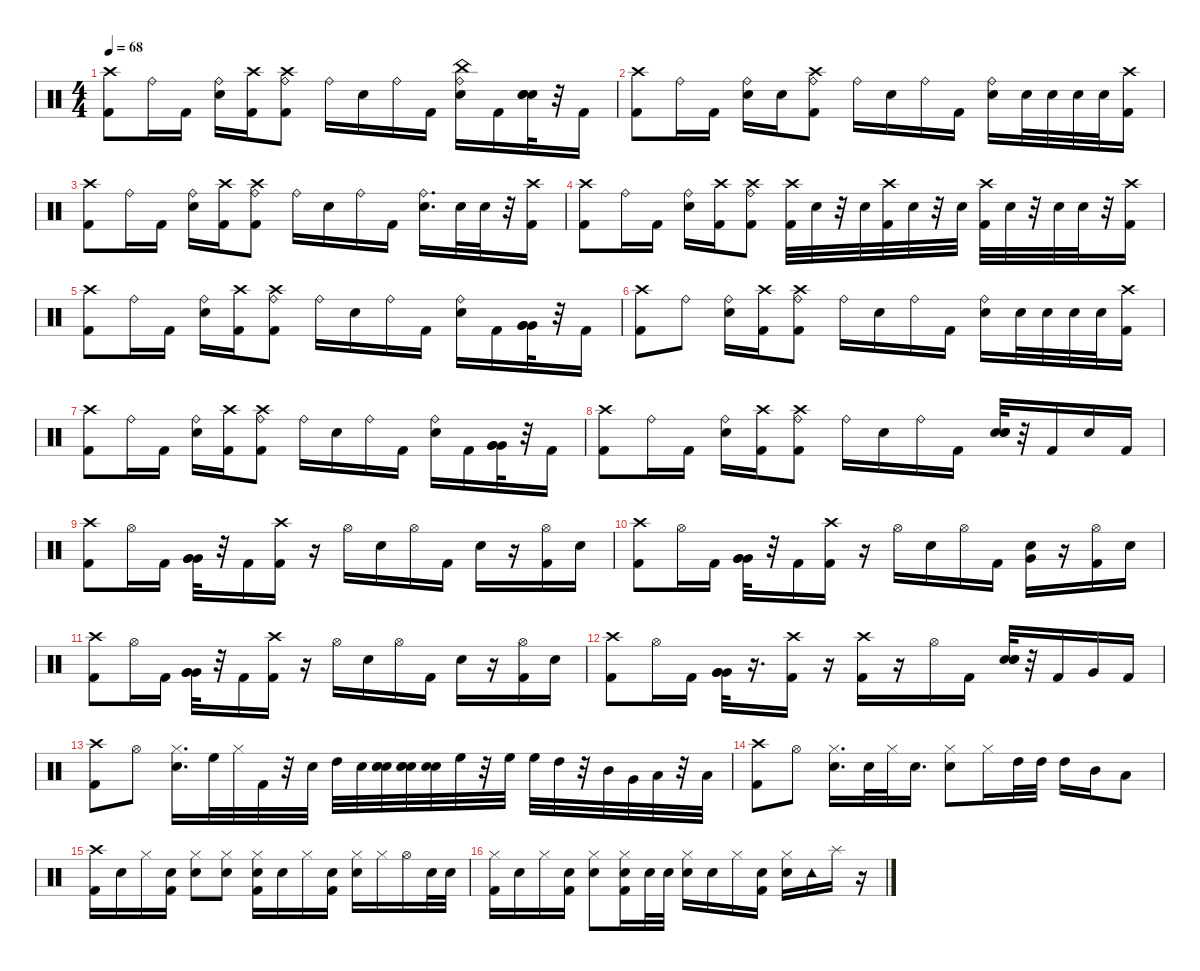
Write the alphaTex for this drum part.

\defaultSystemsLayout 4
\hideDynamics
\bracketExtendMode nobrackets
\singleTrackTrackNamePolicy hidden
\multiTrackTrackNamePolicy hidden
\firstSystemTrackNameMode fullname
\otherSystemsTrackNameOrientation horizontal
\track ("Drums" "drm.") {instrument percussion}
\staff {score}
\articulation defaults
\ts (4 4)
\tempo 68
\clef neutral
\ks c
("Crash high (hit)" "Kick (hit) 2").8{dy f beam Down} "Ride (bell)".16{beam Down} "Kick (hit) 2".16{beam Down} ("Ride (bell)" "Snare (hit) 2").16{beam Down} ("Kick (hit) 2" "Crash high (hit)").16{beam Down} ("Ride (bell)" "Crash high (hit)" "Kick (hit) 2").8{beam Down} "Ride (bell)".16{beam Down} "Snare (hit) 2".16{beam Down} "Ride (bell)".16{beam Down} "Kick (hit) 2".16{beam Down} ("Snare (hit) 2" "Ride (bell)" "China (hit)").16{beam Down} "Kick (hit) 2".16{beam Down} ("Snare (hit) 2" "Snare (hit) 2" "Snare (hit) 2").32{beam Down} r.32{beam Down} "Kick (hit) 2".16{beam Down} |
("Kick (hit) 2" "Crash high (hit)").8{beam Down} "Ride (bell)".16{beam Down} "Kick (hit) 2".16{beam Down} ("Ride (bell)" "Snare (hit) 2").16{beam Down} "Snare (hit) 2".16{beam Down} ("Ride (bell)" "Crash high (hit)" "Kick (hit) 2").8{beam Down} "Ride (bell)".16{beam Down} "Snare (hit) 2".16{beam Down} "Ride (bell)".16{beam Down} "Kick (hit) 2".16{beam Down} ("Ride (bell)" "Snare (hit) 2").16{beam Down} "Snare (hit) 2".32{beam Down} "Snare (hit) 2".32{beam Down} "Snare (hit) 2".32{beam Down} "Snare (hit) 2".32{beam Down} ("Crash high (hit)" "Kick (hit) 2").16{beam Down} |
("Kick (hit) 2" "Crash high (hit)").8{beam Down} "Ride (bell)".16{beam Down} "Kick (hit) 2".16{beam Down} ("Ride (bell)" "Snare (hit) 2").16{beam Down} ("Crash high (hit)" "Kick (hit) 2").16{beam Down} ("Ride (bell)" "Crash high (hit)" "Kick (hit) 2").8{beam Down} "Ride (bell)".16{beam Down} "Snare (hit) 2".16{beam Down} "Ride (bell)".16{beam Down} "Kick (hit) 2".16{beam Down} ("Snare (hit) 2" "Ride (bell)").16{d beam Down} "Snare (hit) 2".32{beam Down} "Snare (hit) 2".32{beam Down} r.32{beam Down} ("Kick (hit) 2" "Crash high (hit)").16{beam Down} |
("Crash high (hit)" "Kick (hit) 2").8{beam Down} "Ride (bell)".16{beam Down} "Kick (hit) 2".16{beam Down} ("Ride (bell)" "Snare (hit) 2").16{beam Down} ("Crash high (hit)" "Kick (hit) 2").16{beam Down} ("Ride (bell)" "Crash high (hit)" "Kick (hit) 2").8{beam Down} ("Kick (hit) 2" "Crash high (hit)").32{beam Down} "Snare (hit) 2".32{beam Down} r.32{beam Down} "Snare (hit) 2".32{beam Down} ("Kick (hit) 2" "Crash high (hit)").32{beam Down} "Snare (hit) 2".32{beam Down} r.32{beam Down} "Snare (hit) 2".32{beam Down} ("Kick (hit) 2" "Crash high (hit)").32{beam Down} "Snare (hit) 2".32{beam Down} r.32{beam Down} "Snare (hit) 2".32{beam Down} "Snare (hit) 2".32{beam Down} r.32{beam Down} ("Crash high (hit)" "Kick (hit) 2").16{beam Down} |
("Kick (hit) 2" "Crash high (hit)").8{beam Down} "Ride (bell)".16{beam Down} "Kick (hit) 2".16{beam Down} ("Ride (bell)" "Snare (hit) 2").16{beam Down} ("Kick (hit) 2" "Crash high (hit)").16{beam Down} ("Ride (bell)" "Crash high (hit)" "Kick (hit) 2").8{beam Down} "Ride (bell)".16{beam Down} "Snare (hit) 2".16{beam Down} "Ride (bell)".16{beam Down} "Kick (hit) 2".16{beam Down} ("Snare (hit) 2" "Ride (bell)").16{beam Down} "Kick (hit) 2".16{beam Down} ("Very Low Tom (hit)" "Very Low Tom (hit)" "Very Low Tom (hit)").32{beam Down} r.32{beam Down} "Kick (hit) 2".16{beam Down} |
("Kick (hit) 2" "Crash high (hit)").8{beam Down} "Ride (bell)".8{beam Down} ("Ride (bell)" "Snare (hit) 2").16{beam Down} ("Kick (hit) 2" "Crash high (hit)").16{beam Down} ("Ride (bell)" "Crash high (hit)" "Kick (hit) 2").8{beam Down} "Ride (bell)".16{beam Down} "Snare (hit) 2".16{beam Down} "Ride (bell)".16{beam Down} "Kick (hit) 2".16{beam Down} ("Ride (bell)" "Snare (hit) 2").16{beam Down} "Snare (hit) 2".32{beam Down} "Snare (hit) 2".32{beam Down} "Snare (hit) 2".32{beam Down} "Snare (hit) 2".32{beam Down} ("Crash high (hit)" "Kick (hit) 2").16{beam Down} |
("Crash high (hit)" "Kick (hit) 2").8{beam Down} "Ride (bell)".16{beam Down} "Kick (hit) 2".16{beam Down} ("Ride (bell)" "Snare (hit) 2").16{beam Down} ("Kick (hit) 2" "Crash high (hit)").16{beam Down} ("Ride (bell)" "Crash high (hit)" "Kick (hit) 2").8{beam Down} "Ride (bell)".16{beam Down} "Snare (hit) 2".16{beam Down} "Ride (bell)".16{beam Down} "Kick (hit) 2".16{beam Down} ("Snare (hit) 2" "Ride (bell)").16{beam Down} "Kick (hit) 2".16{beam Down} ("Very Low Tom (hit)" "Very Low Tom (hit)" "Very Low Tom (hit)").32{beam Down} r.32{beam Down} "Kick (hit) 2".16{beam Down} |
("Kick (hit) 2" "Crash high (hit)").8{beam Down} "Ride (bell)".16{beam Down} "Kick (hit) 2".16{beam Down} ("Ride (bell)" "Snare (hit) 2").16{beam Down} ("Kick (hit) 2" "Crash high (hit)").16{beam Down} ("Ride (bell)" "Crash high (hit)" "Kick (hit) 2").8{beam Down} "Ride (bell)".16{beam Down} "Snare (hit) 2".16{beam Down} "Ride (bell)".16{beam Down} "Kick (hit) 2".16{beam Down} ("Snare (hit) 2" "Snare (hit) 2" "Snare (hit) 2").32{beam Up} r.32{beam Up} "Kick (hit) 2".16{beam Up} "Snare (hit) 2".16{beam Up} "Kick (hit) 2".16{beam Up} |
("Crash high (hit)" "Kick (hit) 2").8{beam Down} "Hi-Hat (open)".16{beam Down} "Kick (hit) 2".16{beam Down} ("Very Low Tom (hit)" "Very Low Tom (hit)" "Very Low Tom (hit)").32{beam Down} r.32{beam Down} "Kick (hit) 2".16{beam Down} ("Crash high (hit)" "Kick (hit) 2").16{beam Down} r.16{beam Down} "Hi-Hat (open)".16{beam Down} "Snare (hit) 2".16{beam Down} "Hi-Hat (open)".16{beam Down} "Kick (hit) 2".16{beam Down} "Snare (hit) 2".16{beam Down} r.16{beam Down} ("Kick (hit) 2" "Hi-Hat (open)").16{beam Down} "Snare (hit) 2".16{beam Down} |
("Kick (hit) 2" "Crash high (hit)").8{beam Down} "Hi-Hat (open)".16{beam Down} "Kick (hit) 2".16{beam Down} ("Very Low Tom (hit)" "Very Low Tom (hit)" "Very Low Tom (hit)").32{beam Down} r.32{beam Down} "Kick (hit) 2".16{beam Down} ("Crash high (hit)" "Kick (hit) 2").16{beam Down} r.16{beam Down} "Hi-Hat (open)".16{beam Down} "Snare (hit) 2".16{beam Down} "Hi-Hat (open)".16{beam Down} "Kick (hit) 2".16{beam Down} ("Snare (hit) 2" "Very Low Tom (hit)").16{beam Down} r.16{beam Down} ("Kick (hit) 2" "Hi-Hat (open)").16{beam Down} "Snare (hit) 2".16{beam Down} |
("Kick (hit) 2" "Crash high (hit)").8{beam Down} "Hi-Hat (open)".16{beam Down} "Kick (hit) 2".16{beam Down} ("Very Low Tom (hit)" "Very Low Tom (hit)" "Very Low Tom (hit)").32{beam Down} r.32{beam Down} "Kick (hit) 2".16{beam Down} ("Crash high (hit)" "Kick (hit) 2").16{beam Down} r.16{beam Down} "Hi-Hat (open)".16{beam Down} "Snare (hit) 2".16{beam Down} "Hi-Hat (open)".16{beam Down} "Kick (hit) 2".16{beam Down} "Snare (hit) 2".16{beam Down} r.16{beam Down} ("Kick (hit) 2" "Hi-Hat (open)").16{beam Down} "Snare (hit) 2".16{beam Down} |
("Crash high (hit)" "Kick (hit) 2").8{beam Down} "Hi-Hat (open)".16{beam Down} "Kick (hit) 2".16{beam Down} ("Very Low Tom (hit)" "Very Low Tom (hit)" "Very Low Tom (hit)").32{beam Down} r.16{d beam Down} ("Crash high (hit)" "Kick (hit) 2").16{beam Down} r.16{beam Down} ("Crash high (hit)" "Kick (hit) 2").16{beam Down} r.16{beam Down} "Hi-Hat (open)".16{beam Down} "Kick (hit) 2".16{beam Down} ("Snare (hit) 2" "Snare (hit) 2" "Snare (hit) 2").32{beam Up} r.32{beam Up} "Kick (hit) 2".16{beam Up} "Very Low Tom (hit)".16{beam Up} "Kick (hit) 2".16{beam Up} |
("Crash high (hit)" "Kick (hit) 2").8{beam Down} "Hi-Hat (open)".8{beam Down} ("Snare (hit) 2" "Hi-Hat (closed)").16{d beam Down} "High Floor Tom (hit)".32{beam Down} "Hi-Hat (closed)".32{beam Down} "Kick (hit) 2".32{beam Down} r.32{beam Down} "Snare (hit) 2".32{beam Down} "High Tom (hit)".32{beam Down} "Snare (hit) 2".32{dy p beam Down} ("Snare (hit) 2" "Snare (hit) 2" "Snare (hit) 2").32{beam Down} ("Snare (hit) 2" "Snare (hit) 2" "Snare (hit) 2").32{beam Down} ("Snare (hit) 2" "Snare (hit) 2").32{beam Down} "High Floor Tom (hit)".32{dy f beam Down} r.32{beam Down} "High Floor Tom (hit)".32{beam Down} "High Floor Tom (hit)".32{dy ff beam Down} "High Tom (hit)".32{dy f beam Down} r.32{beam Down} "Mid Tom (hit)".32{beam Down} "Very Low Tom (hit)".32{beam Down} "Low Floor Tom (hit)".32{beam Down} r.32{beam Down} "Low Floor Tom (hit)".32{beam Down} |
("Crash high (hit)" "Kick (hit) 2").8{beam Down} "Hi-Hat (open)".8{beam Down} ("Snare (hit) 2" "Hi-Hat (closed)").16{d beam Down} "Snare (hit) 2".32{beam Down} "Hi-Hat (closed)".32{beam Down} "Snare (hit) 2".16{d beam Down} ("Snare (hit) 2" "Hi-Hat (closed)").8{beam Down} "Hi-Hat (closed)".16{beam Down} "High Tom (hit)".32{dy mp beam Down} "High Tom (hit)".32{dy mf beam Down} "High Tom (hit)".16{dy f beam Down} "Mid Tom (hit)".16{beam Down} "Low Tom (hit)".8{beam Down} |
("Crash high (hit)" "Kick (hit) 2").16{beam Down} "Snare (hit) 2".16{dy p beam Down} "Hi-Hat (closed)".16{dy f beam Down} ("Kick (hit) 2" "Snare (hit) 2").16{beam Down} ("Hi-Hat (closed)" "Snare (hit) 2").8{beam Down} ("Hi-Hat (closed)" "Snare (hit) 2").8{beam Down} ("Hi-Hat (closed)" "Kick (hit) 2" "Snare (hit) 2").16{beam Down} "Snare (hit) 2".16{dy p beam Down} "Hi-Hat (closed)".16{dy f beam Down} ("Kick (hit) 2" "Snare (hit) 2").16{beam Down} ("Snare (hit) 2" "Hi-Hat (closed)").16{beam Down} "Hi-Hat (closed)".16{beam Down} "Hi-Hat (open)".16{beam Down} "Snare (hit) 2".32{dy p beam Down} "Snare (hit) 2".32{beam Down} |
("Kick (hit) 2" "Hi-Hat (closed)").16{dy f beam Down} "Snare (hit) 2".16{dy p beam Down} "Hi-Hat (closed)".16{dy f beam Down} ("Kick (hit) 2" "Snare (hit) 2").16{beam Down} ("Hi-Hat (closed)" "Snare (hit) 2").8{beam Down} ("Hi-Hat (closed)" "Kick (hit) 2" "Snare (hit) 2").16{beam Down} "Snare (hit) 2".32{dy p beam Down} "Snare (hit) 2".32{beam Down} ("Hi-Hat (closed)" "Snare (hit) 2").16{dy f beam Down} "Snare (hit) 2".16{dy p beam Down} "Hi-Hat (closed)".16{dy f beam Down} ("Kick (hit) 2" "Snare (hit) 2").16{beam Down} ("Snare (hit) 2" "Hi-Hat (closed)").16{beam Down} "Tambourine (hit)".16{beam Down} "Splash (hit)".16{beam Down} r.16{beam Down}
